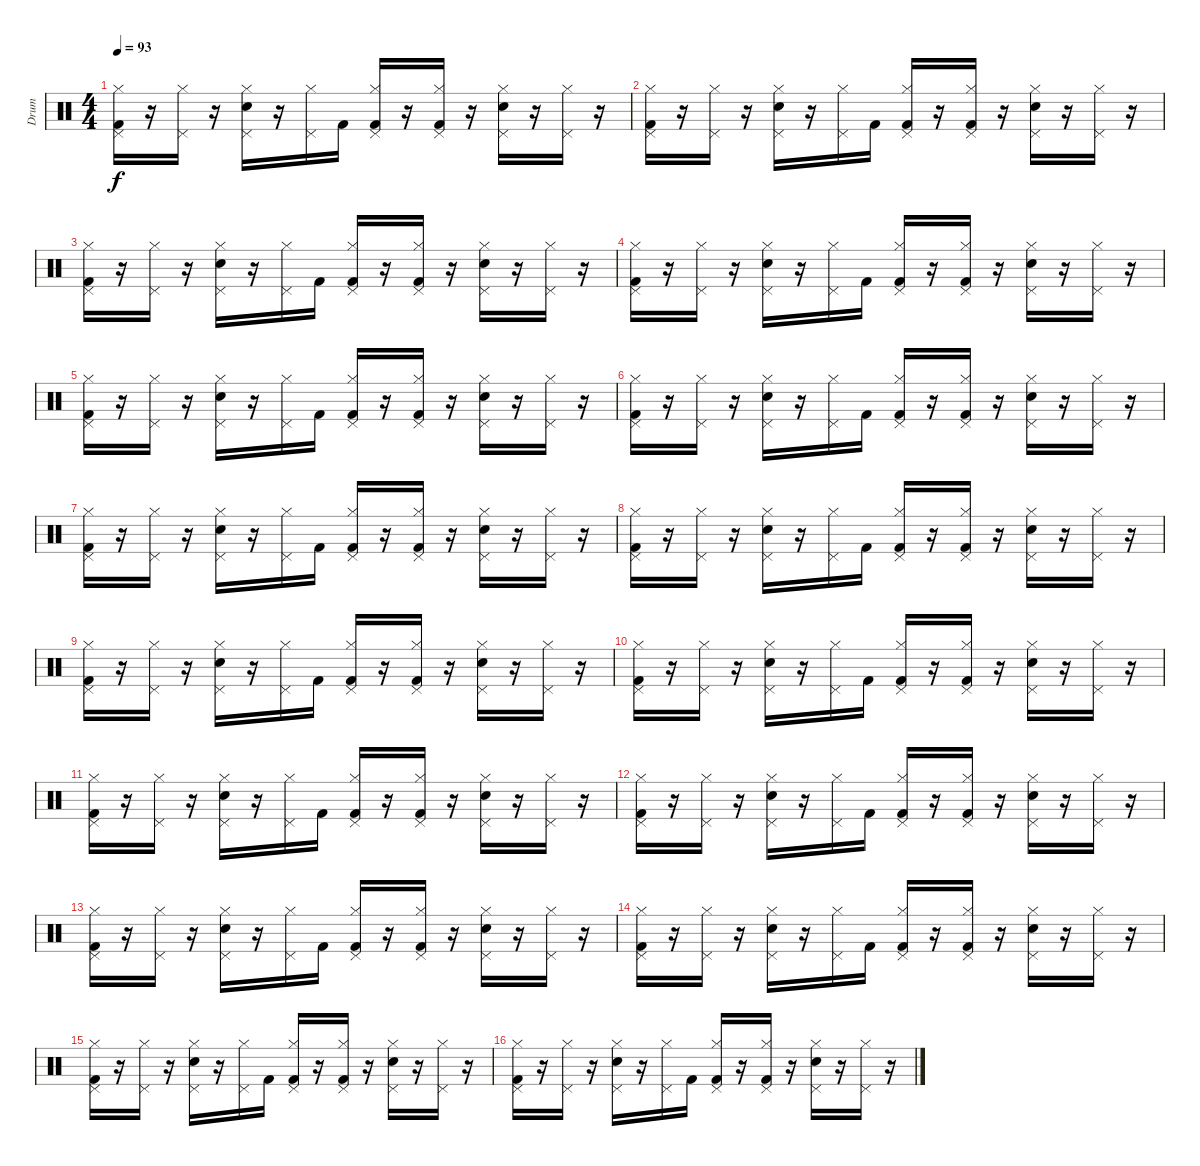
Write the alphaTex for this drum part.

\track ("Drum" "Drum") {instrument percussion}
\staff {score}
\articulation defaults
\ts (4 4)
\tempo 93
\clef neutral
\ks c
("Kick (hit) 2" "Hi-Hat (closed)" "Pedal Hi-Hat (hit)").16{dy f} r.16 ("Hi-Hat (closed)" "Pedal Hi-Hat (hit)").16 r.16 ("Snare (hit) 2" "Hi-Hat (closed)" "Pedal Hi-Hat (hit)").16 r.16 ("Hi-Hat (closed)" "Pedal Hi-Hat (hit)").16 "Kick (hit) 2".16 ("Kick (hit) 2" "Hi-Hat (closed)" "Pedal Hi-Hat (hit)").16 r.16 ("Kick (hit) 2" "Hi-Hat (closed)" "Pedal Hi-Hat (hit)").16 r.16 ("Snare (hit) 2" "Hi-Hat (closed)" "Pedal Hi-Hat (hit)").16 r.16 ("Hi-Hat (closed)" "Pedal Hi-Hat (hit)").16 r.16 |
("Kick (hit) 2" "Hi-Hat (closed)" "Pedal Hi-Hat (hit)").16 r.16 ("Hi-Hat (closed)" "Pedal Hi-Hat (hit)").16 r.16 ("Snare (hit) 2" "Hi-Hat (closed)" "Pedal Hi-Hat (hit)").16 r.16 ("Hi-Hat (closed)" "Pedal Hi-Hat (hit)").16 "Kick (hit) 2".16 ("Kick (hit) 2" "Hi-Hat (closed)" "Pedal Hi-Hat (hit)").16 r.16 ("Kick (hit) 2" "Hi-Hat (closed)" "Pedal Hi-Hat (hit)").16 r.16 ("Snare (hit) 2" "Hi-Hat (closed)" "Pedal Hi-Hat (hit)").16 r.16 ("Hi-Hat (closed)" "Pedal Hi-Hat (hit)").16 r.16 |
("Kick (hit) 2" "Hi-Hat (closed)" "Pedal Hi-Hat (hit)").16 r.16 ("Hi-Hat (closed)" "Pedal Hi-Hat (hit)").16 r.16 ("Snare (hit) 2" "Hi-Hat (closed)" "Pedal Hi-Hat (hit)").16 r.16 ("Hi-Hat (closed)" "Pedal Hi-Hat (hit)").16 "Kick (hit) 2".16 ("Kick (hit) 2" "Hi-Hat (closed)" "Pedal Hi-Hat (hit)").16 r.16 ("Kick (hit) 2" "Hi-Hat (closed)" "Pedal Hi-Hat (hit)").16 r.16 ("Snare (hit) 2" "Hi-Hat (closed)" "Pedal Hi-Hat (hit)").16 r.16 ("Hi-Hat (closed)" "Pedal Hi-Hat (hit)").16 r.16 |
("Kick (hit) 2" "Hi-Hat (closed)" "Pedal Hi-Hat (hit)").16 r.16 ("Hi-Hat (closed)" "Pedal Hi-Hat (hit)").16 r.16 ("Snare (hit) 2" "Hi-Hat (closed)" "Pedal Hi-Hat (hit)").16 r.16 ("Hi-Hat (closed)" "Pedal Hi-Hat (hit)").16 "Kick (hit) 2".16 ("Kick (hit) 2" "Hi-Hat (closed)" "Pedal Hi-Hat (hit)").16 r.16 ("Kick (hit) 2" "Hi-Hat (closed)" "Pedal Hi-Hat (hit)").16 r.16 ("Snare (hit) 2" "Hi-Hat (closed)" "Pedal Hi-Hat (hit)").16 r.16 ("Hi-Hat (closed)" "Pedal Hi-Hat (hit)").16 r.16 |
("Kick (hit) 2" "Hi-Hat (closed)" "Pedal Hi-Hat (hit)").16 r.16 ("Hi-Hat (closed)" "Pedal Hi-Hat (hit)").16 r.16 ("Snare (hit) 2" "Hi-Hat (closed)" "Pedal Hi-Hat (hit)").16 r.16 ("Hi-Hat (closed)" "Pedal Hi-Hat (hit)").16 "Kick (hit) 2".16 ("Kick (hit) 2" "Hi-Hat (closed)" "Pedal Hi-Hat (hit)").16 r.16 ("Kick (hit) 2" "Hi-Hat (closed)" "Pedal Hi-Hat (hit)").16 r.16 ("Snare (hit) 2" "Hi-Hat (closed)" "Pedal Hi-Hat (hit)").16 r.16 ("Hi-Hat (closed)" "Pedal Hi-Hat (hit)").16 r.16 |
("Kick (hit) 2" "Hi-Hat (closed)" "Pedal Hi-Hat (hit)").16 r.16 ("Hi-Hat (closed)" "Pedal Hi-Hat (hit)").16 r.16 ("Snare (hit) 2" "Hi-Hat (closed)" "Pedal Hi-Hat (hit)").16 r.16 ("Hi-Hat (closed)" "Pedal Hi-Hat (hit)").16 "Kick (hit) 2".16 ("Kick (hit) 2" "Hi-Hat (closed)" "Pedal Hi-Hat (hit)").16 r.16 ("Kick (hit) 2" "Hi-Hat (closed)" "Pedal Hi-Hat (hit)").16 r.16 ("Snare (hit) 2" "Hi-Hat (closed)" "Pedal Hi-Hat (hit)").16 r.16 ("Hi-Hat (closed)" "Pedal Hi-Hat (hit)").16 r.16 |
("Kick (hit) 2" "Hi-Hat (closed)" "Pedal Hi-Hat (hit)").16 r.16 ("Hi-Hat (closed)" "Pedal Hi-Hat (hit)").16 r.16 ("Snare (hit) 2" "Hi-Hat (closed)" "Pedal Hi-Hat (hit)").16 r.16 ("Hi-Hat (closed)" "Pedal Hi-Hat (hit)").16 "Kick (hit) 2".16 ("Kick (hit) 2" "Hi-Hat (closed)" "Pedal Hi-Hat (hit)").16 r.16 ("Kick (hit) 2" "Hi-Hat (closed)" "Pedal Hi-Hat (hit)").16 r.16 ("Snare (hit) 2" "Hi-Hat (closed)" "Pedal Hi-Hat (hit)").16 r.16 ("Hi-Hat (closed)" "Pedal Hi-Hat (hit)").16 r.16 |
("Kick (hit) 2" "Hi-Hat (closed)" "Pedal Hi-Hat (hit)").16 r.16 ("Hi-Hat (closed)" "Pedal Hi-Hat (hit)").16 r.16 ("Snare (hit) 2" "Hi-Hat (closed)" "Pedal Hi-Hat (hit)").16 r.16 ("Hi-Hat (closed)" "Pedal Hi-Hat (hit)").16 "Kick (hit) 2".16 ("Kick (hit) 2" "Hi-Hat (closed)" "Pedal Hi-Hat (hit)").16 r.16 ("Kick (hit) 2" "Hi-Hat (closed)" "Pedal Hi-Hat (hit)").16 r.16 ("Snare (hit) 2" "Hi-Hat (closed)" "Pedal Hi-Hat (hit)").16 r.16 ("Hi-Hat (closed)" "Pedal Hi-Hat (hit)").16 r.16 |
("Kick (hit) 2" "Hi-Hat (closed)" "Pedal Hi-Hat (hit)").16 r.16 ("Hi-Hat (closed)" "Pedal Hi-Hat (hit)").16 r.16 ("Snare (hit) 2" "Hi-Hat (closed)" "Pedal Hi-Hat (hit)").16 r.16 ("Hi-Hat (closed)" "Pedal Hi-Hat (hit)").16 "Kick (hit) 2".16 ("Kick (hit) 2" "Hi-Hat (closed)" "Pedal Hi-Hat (hit)").16 r.16 ("Kick (hit) 2" "Hi-Hat (closed)" "Pedal Hi-Hat (hit)").16 r.16 ("Snare (hit) 2" "Hi-Hat (closed)" "Pedal Hi-Hat (hit)").16 r.16 ("Hi-Hat (closed)" "Pedal Hi-Hat (hit)").16 r.16 |
("Kick (hit) 2" "Hi-Hat (closed)" "Pedal Hi-Hat (hit)").16 r.16 ("Hi-Hat (closed)" "Pedal Hi-Hat (hit)").16 r.16 ("Snare (hit) 2" "Hi-Hat (closed)" "Pedal Hi-Hat (hit)").16 r.16 ("Hi-Hat (closed)" "Pedal Hi-Hat (hit)").16 "Kick (hit) 2".16 ("Kick (hit) 2" "Hi-Hat (closed)" "Pedal Hi-Hat (hit)").16 r.16 ("Kick (hit) 2" "Hi-Hat (closed)" "Pedal Hi-Hat (hit)").16 r.16 ("Snare (hit) 2" "Hi-Hat (closed)" "Pedal Hi-Hat (hit)").16 r.16 ("Hi-Hat (closed)" "Pedal Hi-Hat (hit)").16 r.16 |
("Kick (hit) 2" "Hi-Hat (closed)" "Pedal Hi-Hat (hit)").16 r.16 ("Hi-Hat (closed)" "Pedal Hi-Hat (hit)").16 r.16 ("Snare (hit) 2" "Hi-Hat (closed)" "Pedal Hi-Hat (hit)").16 r.16 ("Hi-Hat (closed)" "Pedal Hi-Hat (hit)").16 "Kick (hit) 2".16 ("Kick (hit) 2" "Hi-Hat (closed)" "Pedal Hi-Hat (hit)").16 r.16 ("Kick (hit) 2" "Hi-Hat (closed)" "Pedal Hi-Hat (hit)").16 r.16 ("Snare (hit) 2" "Hi-Hat (closed)" "Pedal Hi-Hat (hit)").16 r.16 ("Hi-Hat (closed)" "Pedal Hi-Hat (hit)").16 r.16 |
("Kick (hit) 2" "Hi-Hat (closed)" "Pedal Hi-Hat (hit)").16 r.16 ("Hi-Hat (closed)" "Pedal Hi-Hat (hit)").16 r.16 ("Snare (hit) 2" "Hi-Hat (closed)" "Pedal Hi-Hat (hit)").16 r.16 ("Hi-Hat (closed)" "Pedal Hi-Hat (hit)").16 "Kick (hit) 2".16 ("Kick (hit) 2" "Hi-Hat (closed)" "Pedal Hi-Hat (hit)").16 r.16 ("Kick (hit) 2" "Hi-Hat (closed)" "Pedal Hi-Hat (hit)").16 r.16 ("Snare (hit) 2" "Hi-Hat (closed)" "Pedal Hi-Hat (hit)").16 r.16 ("Hi-Hat (closed)" "Pedal Hi-Hat (hit)").16 r.16 |
("Kick (hit) 2" "Hi-Hat (closed)" "Pedal Hi-Hat (hit)").16 r.16 ("Hi-Hat (closed)" "Pedal Hi-Hat (hit)").16 r.16 ("Snare (hit) 2" "Hi-Hat (closed)" "Pedal Hi-Hat (hit)").16 r.16 ("Hi-Hat (closed)" "Pedal Hi-Hat (hit)").16 "Kick (hit) 2".16 ("Kick (hit) 2" "Hi-Hat (closed)" "Pedal Hi-Hat (hit)").16 r.16 ("Kick (hit) 2" "Hi-Hat (closed)" "Pedal Hi-Hat (hit)").16 r.16 ("Snare (hit) 2" "Hi-Hat (closed)" "Pedal Hi-Hat (hit)").16 r.16 ("Hi-Hat (closed)" "Pedal Hi-Hat (hit)").16 r.16 |
("Kick (hit) 2" "Hi-Hat (closed)" "Pedal Hi-Hat (hit)").16 r.16 ("Hi-Hat (closed)" "Pedal Hi-Hat (hit)").16 r.16 ("Snare (hit) 2" "Hi-Hat (closed)" "Pedal Hi-Hat (hit)").16 r.16 ("Hi-Hat (closed)" "Pedal Hi-Hat (hit)").16 "Kick (hit) 2".16 ("Kick (hit) 2" "Hi-Hat (closed)" "Pedal Hi-Hat (hit)").16 r.16 ("Kick (hit) 2" "Hi-Hat (closed)" "Pedal Hi-Hat (hit)").16 r.16 ("Snare (hit) 2" "Hi-Hat (closed)" "Pedal Hi-Hat (hit)").16 r.16 ("Hi-Hat (closed)" "Pedal Hi-Hat (hit)").16 r.16 |
("Kick (hit) 2" "Hi-Hat (closed)" "Pedal Hi-Hat (hit)").16 r.16 ("Hi-Hat (closed)" "Pedal Hi-Hat (hit)").16 r.16 ("Snare (hit) 2" "Hi-Hat (closed)" "Pedal Hi-Hat (hit)").16 r.16 ("Hi-Hat (closed)" "Pedal Hi-Hat (hit)").16 "Kick (hit) 2".16 ("Kick (hit) 2" "Hi-Hat (closed)" "Pedal Hi-Hat (hit)").16 r.16 ("Kick (hit) 2" "Hi-Hat (closed)" "Pedal Hi-Hat (hit)").16 r.16 ("Snare (hit) 2" "Hi-Hat (closed)" "Pedal Hi-Hat (hit)").16 r.16 ("Hi-Hat (closed)" "Pedal Hi-Hat (hit)").16 r.16 |
("Kick (hit) 2" "Hi-Hat (closed)" "Pedal Hi-Hat (hit)").16 r.16 ("Hi-Hat (closed)" "Pedal Hi-Hat (hit)").16 r.16 ("Snare (hit) 2" "Hi-Hat (closed)" "Pedal Hi-Hat (hit)").16 r.16 ("Hi-Hat (closed)" "Pedal Hi-Hat (hit)").16 "Kick (hit) 2".16 ("Kick (hit) 2" "Hi-Hat (closed)" "Pedal Hi-Hat (hit)").16 r.16 ("Kick (hit) 2" "Hi-Hat (closed)" "Pedal Hi-Hat (hit)").16 r.16 ("Snare (hit) 2" "Hi-Hat (closed)" "Pedal Hi-Hat (hit)").16 r.16 ("Hi-Hat (closed)" "Pedal Hi-Hat (hit)").16 r.16
